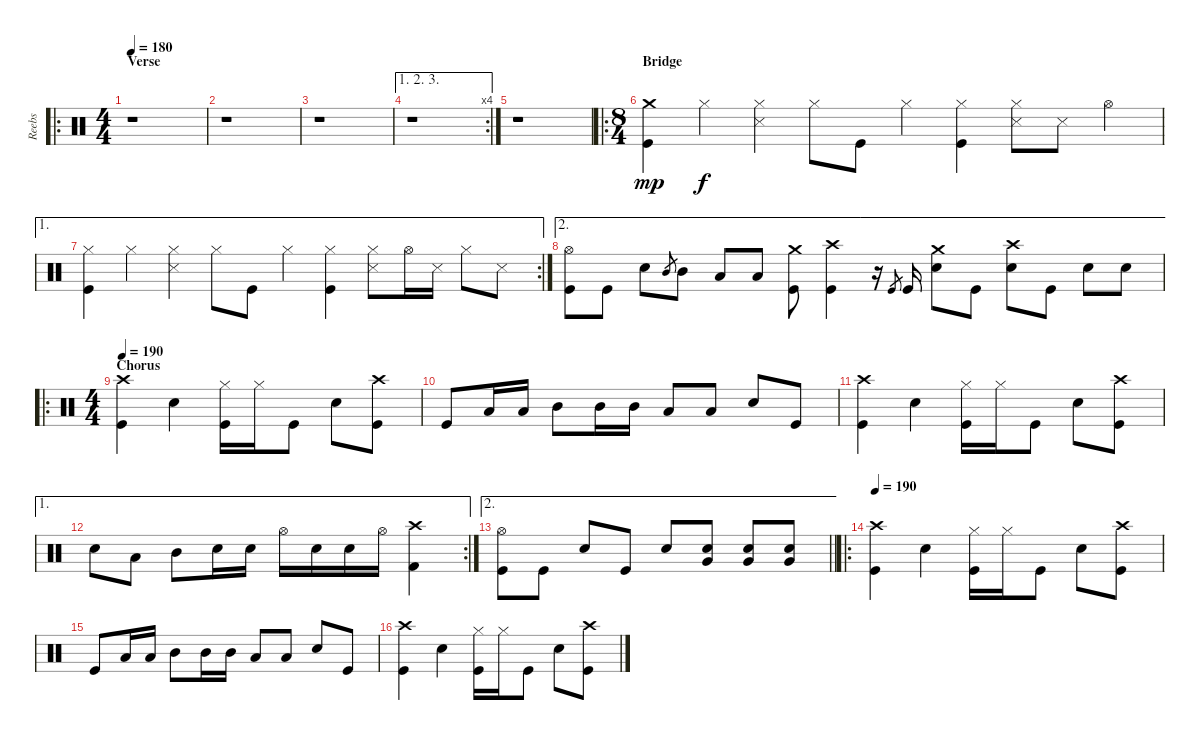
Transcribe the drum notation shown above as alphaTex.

\track ("Reebs" "Reebs") {instrument percussion}
\staff {score}
\articulation defaults
\ro
\ts (4 4)
\section ("" "Verse")
\tempo 180
\clef neutral
\ks c
r.1{dy f} |
r.1 |
r.1 |
\ae (1 2 3)
\rc 4
r.1 |
r.1 |
\ro
\ts (8 4)
\section ("" "Bridge")
("Crash medium (hit)" "Kick (hit)").4{dy mp} "Hi-Hat (closed)".4{dy f} ("Hi-Hat (closed)" "Snare (side stick) 3").4 "Hi-Hat (closed)".8 "Kick (hit)".8 "Hi-Hat (closed)".4 ("Hi-Hat (closed)" "Kick (hit)").4 ("Hi-Hat (closed)" "Snare (side stick) 3").8 "Snare (side stick) 3".8 "Hi-Hat (open)".4 |
\ae 1
\rc 2
("Hi-Hat (closed)" "Kick (hit)").4 "Hi-Hat (closed)".4 ("Hi-Hat (closed)" "Snare (side stick) 3").4 "Hi-Hat (closed)".8 "Kick (hit)".8 "Hi-Hat (closed)".4 ("Hi-Hat (closed)" "Kick (hit)").4 ("Hi-Hat (closed)" "Snare (side stick) 3").8 "Hi-Hat (open)".16 "Snare (side stick) 3".16 "Hi-Hat (closed)".8 "Snare (side stick) 3".8 |
\ae 2
("Hi-Hat (open)" "Kick (hit)").8 "Kick (hit)".8 "Electric Snare (hit)".8 "Mid Tom (hit)".8{gr} "Mid Tom (hit)".8 "Low Tom (hit)".8 "Low Tom (hit)".8 ("Crash medium (hit)" "Kick (hit)").8 ("Crash high (hit)" "Kick (hit)").4 r.16 "Kick (hit)".8{gr} "Kick (hit)".16 ("Crash medium (hit)" "Electric Snare (hit)").8 "Kick (hit)".8 ("Crash high (hit)" "Electric Snare (hit)").8 "Kick (hit)".8 "Electric Snare (hit)".8 "Electric Snare (hit)".8 |
\ro
\ts (4 4)
\section ("" "Chorus")
\tempo 190
("Crash high (hit)" "Kick (hit)").4 "Electric Snare (hit)".4 ("Hi-Hat (closed)" "Kick (hit)").16 "Hi-Hat (closed)".16 "Kick (hit)".8 "Electric Snare (hit)".8 ("Crash high (hit)" "Kick (hit)").8 |
"Kick (hit)".8 "Low Tom (hit)".16 "Low Tom (hit)".16 "Mid Tom (hit)".8 "Mid Tom (hit)".16 "Mid Tom (hit)".16 "Low Floor Tom (hit)".8 "Low Floor Tom (hit)".8 "Electric Snare (hit)".8 "Kick (hit)".8 |
("Crash high (hit)" "Kick (hit)").4 "Electric Snare (hit)".4 ("Hi-Hat (closed)" "Kick (hit)").16 "Hi-Hat (closed)".16 "Kick (hit)".8 "Electric Snare (hit)".8 ("Crash high (hit)" "Kick (hit)").8 |
\ae 1
\rc 2 "Snare (hit) 2".8 "Low Tom (hit)".8 "Mid Tom (hit)".8 "Snare (hit) 2".16 "Snare (hit) 2".16 "Hi-Hat (open)".16 "Snare (hit) 2".16 "Snare (hit) 2".16 "Hi-Hat (open)".16
("Crash high (hit)" "Kick (hit) 2").4 |
\ae 2
\barLineRight lightlight
("Hi-Hat (open)" "Kick (hit)").8 "Kick (hit)".8 "Electric Snare (hit)".8 "Kick (hit)".8 "Electric Snare (hit)".8 ("Very Low Tom (hit)" "Electric Snare (hit)").8 ("Very Low Tom (hit)" "Electric Snare (hit)").8 ("Very Low Tom (hit)" "Electric Snare (hit)").8 |
\ro
\tempo 190
("Crash high (hit)" "Kick (hit)").4 "Electric Snare (hit)".4 ("Hi-Hat (closed)" "Kick (hit)").16 "Hi-Hat (closed)".16 "Kick (hit)".8 "Electric Snare (hit)".8 ("Crash high (hit)" "Kick (hit)").8 |
"Kick (hit)".8 "Low Tom (hit)".16 "Low Tom (hit)".16 "Mid Tom (hit)".8 "Mid Tom (hit)".16 "Mid Tom (hit)".16 "Low Floor Tom (hit)".8 "Low Floor Tom (hit)".8 "Electric Snare (hit)".8 "Kick (hit)".8 |
("Crash high (hit)" "Kick (hit)").4 "Electric Snare (hit)".4 ("Hi-Hat (closed)" "Kick (hit)").16 "Hi-Hat (closed)".16 "Kick (hit)".8 "Electric Snare (hit)".8 ("Crash high (hit)" "Kick (hit)").8
